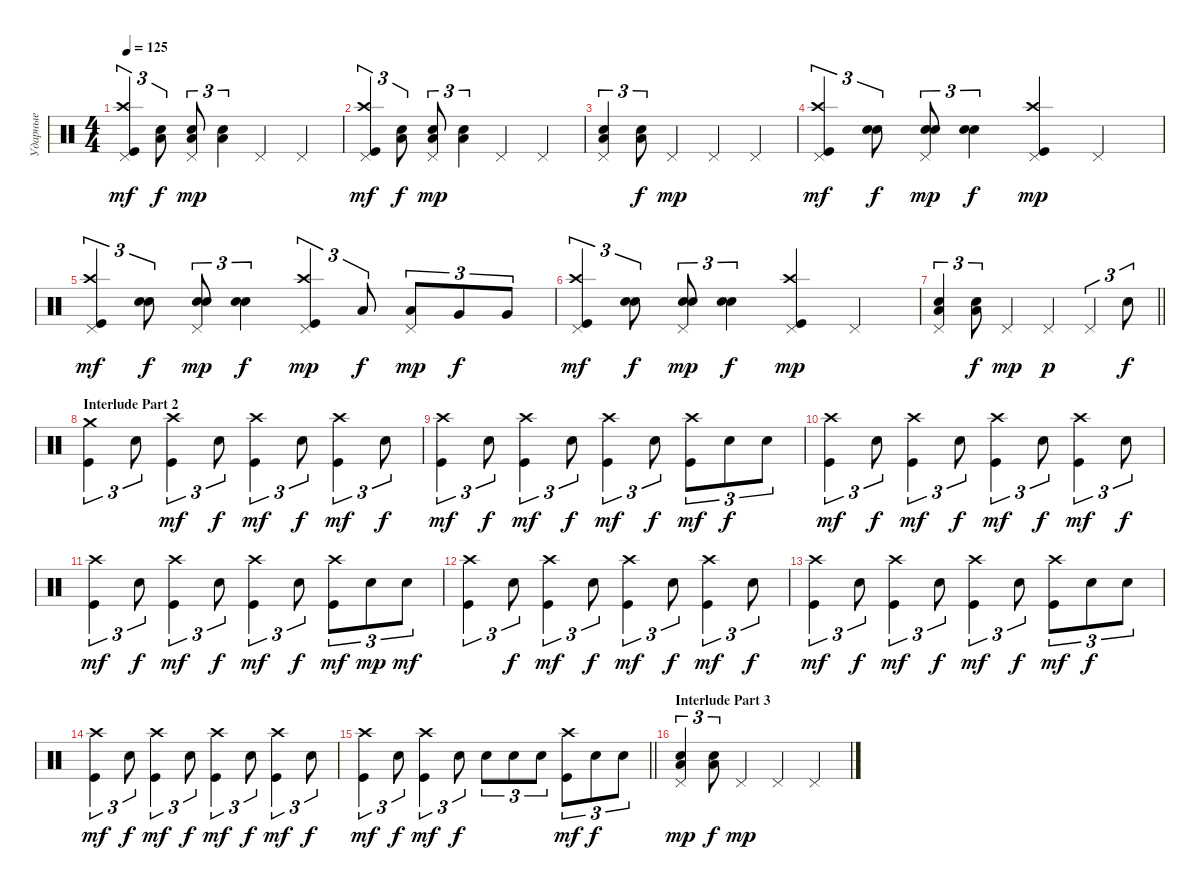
\track ("Ударные" "Ударные") {instrument percussion}
\staff {score}
\articulation defaults
\ts (4 4)
\tempo 125
\clef neutral
\ks c
("Pedal Hi-Hat (hit)" "Crash high (hit)" "Kick (hit)").4{tu (3 2) dy mf} ("Low Tom (hit)" "Snare (hit) 2").8{tu (3 2) dy f} ("Low Tom (hit)" "Snare (hit) 2" "Pedal Hi-Hat (hit)").8{tu (3 2) dy mp} ("Low Tom (hit)" "Snare (hit) 2").4{tu (3 2)} "Pedal Hi-Hat (hit)".4 "Pedal Hi-Hat (hit)".4 |
("Pedal Hi-Hat (hit)" "Crash high (hit)" "Kick (hit)").4{tu (3 2) dy mf} ("Low Tom (hit)" "Snare (hit) 2").8{tu (3 2) dy f} ("Low Tom (hit)" "Snare (hit) 2" "Pedal Hi-Hat (hit)").8{tu (3 2) dy mp} ("Low Tom (hit)" "Snare (hit) 2").4{tu (3 2)} "Pedal Hi-Hat (hit)".4 "Pedal Hi-Hat (hit)".4 |
("Pedal Hi-Hat (hit)" "Snare (hit) 2" "Low Tom (hit)").4{tu (3 2)} ("Low Tom (hit)" "Snare (hit) 2").8{tu (3 2) dy f} "Pedal Hi-Hat (hit)".4{dy mp} "Pedal Hi-Hat (hit)".4 "Pedal Hi-Hat (hit)".4 |
("Pedal Hi-Hat (hit)" "Crash high (hit)" "Kick (hit)").4{tu (3 2) dy mf} ("Snare (hit) 2" "Snare (hit) 2").8{tu (3 2) bd 60 dy f} ("Pedal Hi-Hat (hit)" "Snare (hit) 2" "Snare (hit) 2").8{tu (3 2) bd 60 dy mp} ("Snare (hit) 2" "Snare (hit) 2").4{tu (3 2) bd 60 dy f} ("Kick (hit)" "Crash high (hit)" "Pedal Hi-Hat (hit)").4{dy mp} "Pedal Hi-Hat (hit)".4 |
("Pedal Hi-Hat (hit)" "Crash high (hit)" "Kick (hit)").4{tu (3 2) dy mf} ("Snare (hit) 2" "Snare (hit) 2").8{tu (3 2) bd 60 dy f} ("Pedal Hi-Hat (hit)" "Snare (hit) 2" "Snare (hit) 2").8{tu (3 2) bd 60 dy mp} ("Snare (hit) 2" "Snare (hit) 2").4{tu (3 2) bd 60 dy f} ("Kick (hit)" "Crash high (hit)" "Pedal Hi-Hat (hit)").4{tu (3 2) dy mp} "Low Tom (hit)".8{tu (3 2) dy f} ("Low Tom (hit)" "Pedal Hi-Hat (hit)").8{tu (3 2) dy mp} "Very Low Tom (hit)".8{tu (3 2) dy f} "Very Low Tom (hit)".8{tu (3 2)} |
("Pedal Hi-Hat (hit)" "Crash high (hit)" "Kick (hit)").4{tu (3 2) dy mf} ("Snare (hit) 2" "Snare (hit) 2").8{tu (3 2) bd 60 dy f} ("Pedal Hi-Hat (hit)" "Snare (hit) 2" "Snare (hit) 2").8{tu (3 2) bd 60 dy mp} ("Snare (hit) 2" "Snare (hit) 2").4{tu (3 2) bd 60 dy f} ("Kick (hit)" "Crash high (hit)" "Pedal Hi-Hat (hit)").4{dy mp} "Pedal Hi-Hat (hit)".4 |
\barLineRight lightlight
("Pedal Hi-Hat (hit)" "Snare (hit) 2" "Low Tom (hit)").4{tu (3 2)} ("Low Tom (hit)" "Snare (hit) 2").8{tu (3 2) dy f} "Pedal Hi-Hat (hit)".4{dy mp} "Pedal Hi-Hat (hit)".4{dy p} "Pedal Hi-Hat (hit)".4{tu (3 2)} "Snare (hit) 2".8{tu (3 2) dy f} |
\section ("" "Interlude Part 2")
("Kick (hit)" "Crash medium (hit)").4{tu (3 2)} "Snare (hit) 2".8{tu (3 2)} ("Kick (hit)" "Crash high (hit)").4{tu (3 2) dy mf} "Snare (hit) 2".8{tu (3 2) dy f} ("Kick (hit)" "Crash high (hit)").4{tu (3 2) dy mf} "Snare (hit) 2".8{tu (3 2) dy f} ("Kick (hit)" "Crash high (hit)").4{tu (3 2) dy mf} "Snare (hit) 2".8{tu (3 2) dy f} |
("Kick (hit)" "Crash high (hit)").4{tu (3 2) dy mf} "Snare (hit) 2".8{tu (3 2) dy f} ("Kick (hit)" "Crash high (hit)").4{tu (3 2) dy mf} "Snare (hit) 2".8{tu (3 2) dy f} ("Kick (hit)" "Crash high (hit)").4{tu (3 2) dy mf} "Snare (hit) 2".8{tu (3 2) dy f} ("Kick (hit)" "Crash high (hit)").8{tu (3 2) dy mf} "Snare (hit) 2".8{tu (3 2) dy f} "Snare (hit) 2".8{tu (3 2)} |
("Kick (hit)" "Crash high (hit)").4{tu (3 2) dy mf} "Snare (hit) 2".8{tu (3 2) dy f} ("Kick (hit)" "Crash high (hit)").4{tu (3 2) dy mf} "Snare (hit) 2".8{tu (3 2) dy f} ("Kick (hit)" "Crash high (hit)").4{tu (3 2) dy mf} "Snare (hit) 2".8{tu (3 2) dy f} ("Kick (hit)" "Crash high (hit)").4{tu (3 2) dy mf} "Snare (hit) 2".8{tu (3 2) dy f} |
("Kick (hit)" "Crash high (hit)").4{tu (3 2) dy mf} "Snare (hit) 2".8{tu (3 2) dy f} ("Kick (hit)" "Crash high (hit)").4{tu (3 2) dy mf} "Snare (hit) 2".8{tu (3 2) dy f} ("Kick (hit)" "Crash high (hit)").4{tu (3 2) dy mf} "Snare (hit) 2".8{tu (3 2) dy f} ("Kick (hit)" "Crash high (hit)").8{tu (3 2) dy mf} "Snare (hit) 2".8{tu (3 2) dy mp} "Snare (hit) 2".8{tu (3 2) dy mf} |
("Kick (hit)" "Crash high (hit)").4{tu (3 2)} "Snare (hit) 2".8{tu (3 2) dy f} ("Kick (hit)" "Crash high (hit)").4{tu (3 2) dy mf} "Snare (hit) 2".8{tu (3 2) dy f} ("Kick (hit)" "Crash high (hit)").4{tu (3 2) dy mf} "Snare (hit) 2".8{tu (3 2) dy f} ("Kick (hit)" "Crash high (hit)").4{tu (3 2) dy mf} "Snare (hit) 2".8{tu (3 2) dy f} |
("Kick (hit)" "Crash high (hit)").4{tu (3 2) dy mf} "Snare (hit) 2".8{tu (3 2) dy f} ("Kick (hit)" "Crash high (hit)").4{tu (3 2) dy mf} "Snare (hit) 2".8{tu (3 2) dy f} ("Kick (hit)" "Crash high (hit)").4{tu (3 2) dy mf} "Snare (hit) 2".8{tu (3 2) dy f} ("Kick (hit)" "Crash high (hit)").8{tu (3 2) dy mf} "Snare (hit) 2".8{tu (3 2) dy f} "Snare (hit) 2".8{tu (3 2)} |
("Kick (hit)" "Crash high (hit)").4{tu (3 2) dy mf} "Snare (hit) 2".8{tu (3 2) dy f} ("Kick (hit)" "Crash high (hit)").4{tu (3 2) dy mf} "Snare (hit) 2".8{tu (3 2) dy f} ("Kick (hit)" "Crash high (hit)").4{tu (3 2) dy mf} "Snare (hit) 2".8{tu (3 2) dy f} ("Kick (hit)" "Crash high (hit)").4{tu (3 2) dy mf} "Snare (hit) 2".8{tu (3 2) dy f} |
\barLineRight lightlight
("Kick (hit)" "Crash high (hit)").4{tu (3 2) dy mf} "Snare (hit) 2".8{tu (3 2) dy f} ("Kick (hit)" "Crash high (hit)").4{tu (3 2) dy mf} "Snare (hit) 2".8{tu (3 2) dy f} "Snare (hit) 2".8{tu (3 2)} "Snare (hit) 2".8{tu (3 2)} "Snare (hit) 2".8{tu (3 2)} ("Kick (hit)" "Crash high (hit)").8{tu (3 2) dy mf} "Snare (hit) 2".8{tu (3 2) dy f} "Snare (hit) 2".8{tu (3 2)} |
\section ("" "Interlude Part 3")
("Pedal Hi-Hat (hit)" "Snare (hit) 2" "Low Tom (hit)").4{tu (3 2) dy mp} ("Low Tom (hit)" "Snare (hit) 2").8{tu (3 2) dy f} "Pedal Hi-Hat (hit)".4{dy mp} "Pedal Hi-Hat (hit)".4 "Pedal Hi-Hat (hit)".4
